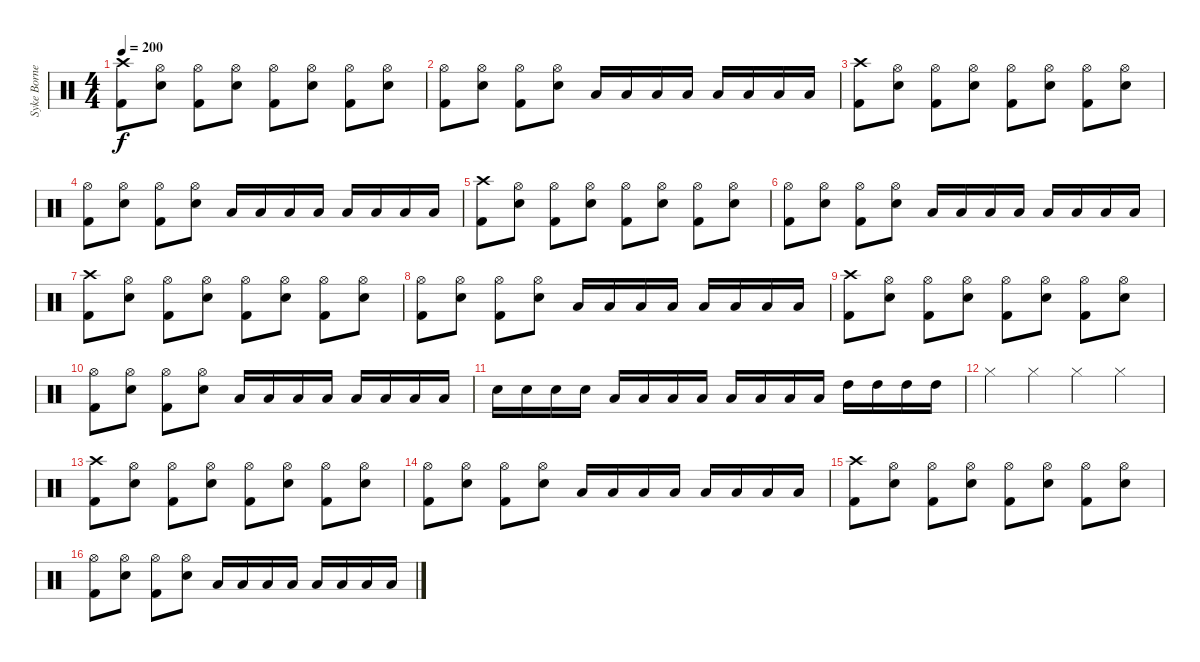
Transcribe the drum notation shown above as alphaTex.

\track ("Syke Bornetto (Drums)" "Syke Borne") {instrument percussion}
\staff {score}
\articulation defaults
\ts (4 4)
\tempo 200
\clef neutral
\ks c
("Crash high (hit)" "Kick (hit) 2").8{dy f} ("Hi-Hat (open)" "Electric Snare (hit)").8 ("Hi-Hat (open)" "Kick (hit) 2").8 ("Hi-Hat (open)" "Electric Snare (hit)").8 ("Hi-Hat (open)" "Kick (hit) 2").8 ("Hi-Hat (open)" "Electric Snare (hit)").8 ("Hi-Hat (open)" "Kick (hit) 2").8 ("Hi-Hat (open)" "Electric Snare (hit)").8 |
("Hi-Hat (open)" "Kick (hit) 2").8 ("Hi-Hat (open)" "Electric Snare (hit)").8 ("Hi-Hat (open)" "Kick (hit) 2").8 ("Hi-Hat (open)" "Electric Snare (hit)").8 "Low Floor Tom (hit)".16 "Low Floor Tom (hit)".16 "Low Floor Tom (hit)".16 "Low Floor Tom (hit)".16 "Low Tom (hit)".16 "Low Tom (hit)".16 "Low Tom (hit)".16 "Low Tom (hit)".16 |
("Crash high (hit)" "Kick (hit) 2").8 ("Hi-Hat (open)" "Electric Snare (hit)").8 ("Hi-Hat (open)" "Kick (hit) 2").8 ("Hi-Hat (open)" "Electric Snare (hit)").8 ("Hi-Hat (open)" "Kick (hit) 2").8 ("Hi-Hat (open)" "Electric Snare (hit)").8 ("Hi-Hat (open)" "Kick (hit) 2").8 ("Hi-Hat (open)" "Electric Snare (hit)").8 |
("Hi-Hat (open)" "Kick (hit) 2").8 ("Hi-Hat (open)" "Electric Snare (hit)").8 ("Hi-Hat (open)" "Kick (hit) 2").8 ("Hi-Hat (open)" "Electric Snare (hit)").8 "Low Floor Tom (hit)".16 "Low Floor Tom (hit)".16 "Low Floor Tom (hit)".16 "Low Floor Tom (hit)".16 "Low Tom (hit)".16 "Low Tom (hit)".16 "Low Tom (hit)".16 "Low Tom (hit)".16 |
("Crash high (hit)" "Kick (hit) 2").8 ("Hi-Hat (open)" "Electric Snare (hit)").8 ("Hi-Hat (open)" "Kick (hit) 2").8 ("Hi-Hat (open)" "Electric Snare (hit)").8 ("Hi-Hat (open)" "Kick (hit) 2").8 ("Hi-Hat (open)" "Electric Snare (hit)").8 ("Hi-Hat (open)" "Kick (hit) 2").8 ("Hi-Hat (open)" "Electric Snare (hit)").8 |
("Hi-Hat (open)" "Kick (hit) 2").8 ("Hi-Hat (open)" "Electric Snare (hit)").8 ("Hi-Hat (open)" "Kick (hit) 2").8 ("Hi-Hat (open)" "Electric Snare (hit)").8 "Low Floor Tom (hit)".16 "Low Floor Tom (hit)".16 "Low Floor Tom (hit)".16 "Low Floor Tom (hit)".16 "Low Tom (hit)".16 "Low Tom (hit)".16 "Low Tom (hit)".16 "Low Tom (hit)".16 |
("Crash high (hit)" "Kick (hit) 2").8 ("Hi-Hat (open)" "Electric Snare (hit)").8 ("Hi-Hat (open)" "Kick (hit) 2").8 ("Hi-Hat (open)" "Electric Snare (hit)").8 ("Hi-Hat (open)" "Kick (hit) 2").8 ("Hi-Hat (open)" "Electric Snare (hit)").8 ("Hi-Hat (open)" "Kick (hit) 2").8 ("Hi-Hat (open)" "Electric Snare (hit)").8 |
("Hi-Hat (open)" "Kick (hit) 2").8 ("Hi-Hat (open)" "Electric Snare (hit)").8 ("Hi-Hat (open)" "Kick (hit) 2").8 ("Hi-Hat (open)" "Electric Snare (hit)").8 "Low Floor Tom (hit)".16 "Low Floor Tom (hit)".16 "Low Floor Tom (hit)".16 "Low Floor Tom (hit)".16 "Low Tom (hit)".16 "Low Tom (hit)".16 "Low Tom (hit)".16 "Low Tom (hit)".16 |
("Crash high (hit)" "Kick (hit) 2").8 ("Hi-Hat (open)" "Electric Snare (hit)").8 ("Hi-Hat (open)" "Kick (hit) 2").8 ("Hi-Hat (open)" "Electric Snare (hit)").8 ("Hi-Hat (open)" "Kick (hit) 2").8 ("Hi-Hat (open)" "Electric Snare (hit)").8 ("Hi-Hat (open)" "Kick (hit) 2").8 ("Hi-Hat (open)" "Electric Snare (hit)").8 |
("Hi-Hat (open)" "Kick (hit) 2").8 ("Hi-Hat (open)" "Electric Snare (hit)").8 ("Hi-Hat (open)" "Kick (hit) 2").8 ("Hi-Hat (open)" "Electric Snare (hit)").8 "Low Floor Tom (hit)".16 "Low Floor Tom (hit)".16 "Low Floor Tom (hit)".16 "Low Floor Tom (hit)".16 "Low Tom (hit)".16 "Low Tom (hit)".16 "Low Tom (hit)".16 "Low Tom (hit)".16 |
"Electric Snare (hit)".16 "Electric Snare (hit)".16 "Electric Snare (hit)".16 "Electric Snare (hit)".16 "Low Floor Tom (hit)".16 "Low Floor Tom (hit)".16 "Low Floor Tom (hit)".16 "Low Floor Tom (hit)".16 "Low Tom (hit)".16 "Low Tom (hit)".16 "Low Tom (hit)".16 "Low Tom (hit)".16 "High Tom (hit)".16 "High Tom (hit)".16 "High Tom (hit)".16 "High Tom (hit)".16 |
"Hi-Hat (closed)".4 "Hi-Hat (closed)".4 "Hi-Hat (closed)".4 "Hi-Hat (closed)".4 |
("Crash high (hit)" "Kick (hit) 2").8 ("Hi-Hat (open)" "Electric Snare (hit)").8 ("Hi-Hat (open)" "Kick (hit) 2").8 ("Hi-Hat (open)" "Electric Snare (hit)").8 ("Hi-Hat (open)" "Kick (hit) 2").8 ("Hi-Hat (open)" "Electric Snare (hit)").8 ("Hi-Hat (open)" "Kick (hit) 2").8 ("Hi-Hat (open)" "Electric Snare (hit)").8 |
("Hi-Hat (open)" "Kick (hit) 2").8 ("Hi-Hat (open)" "Electric Snare (hit)").8 ("Hi-Hat (open)" "Kick (hit) 2").8 ("Hi-Hat (open)" "Electric Snare (hit)").8 "Low Floor Tom (hit)".16 "Low Floor Tom (hit)".16 "Low Floor Tom (hit)".16 "Low Floor Tom (hit)".16 "Low Tom (hit)".16 "Low Tom (hit)".16 "Low Tom (hit)".16 "Low Tom (hit)".16 |
("Crash high (hit)" "Kick (hit) 2").8 ("Hi-Hat (open)" "Electric Snare (hit)").8 ("Hi-Hat (open)" "Kick (hit) 2").8 ("Hi-Hat (open)" "Electric Snare (hit)").8 ("Hi-Hat (open)" "Kick (hit) 2").8 ("Hi-Hat (open)" "Electric Snare (hit)").8 ("Hi-Hat (open)" "Kick (hit) 2").8 ("Hi-Hat (open)" "Electric Snare (hit)").8 |
("Hi-Hat (open)" "Kick (hit) 2").8 ("Hi-Hat (open)" "Electric Snare (hit)").8 ("Hi-Hat (open)" "Kick (hit) 2").8 ("Hi-Hat (open)" "Electric Snare (hit)").8 "Low Floor Tom (hit)".16 "Low Floor Tom (hit)".16 "Low Floor Tom (hit)".16 "Low Floor Tom (hit)".16 "Low Tom (hit)".16 "Low Tom (hit)".16 "Low Tom (hit)".16 "Low Tom (hit)".16
